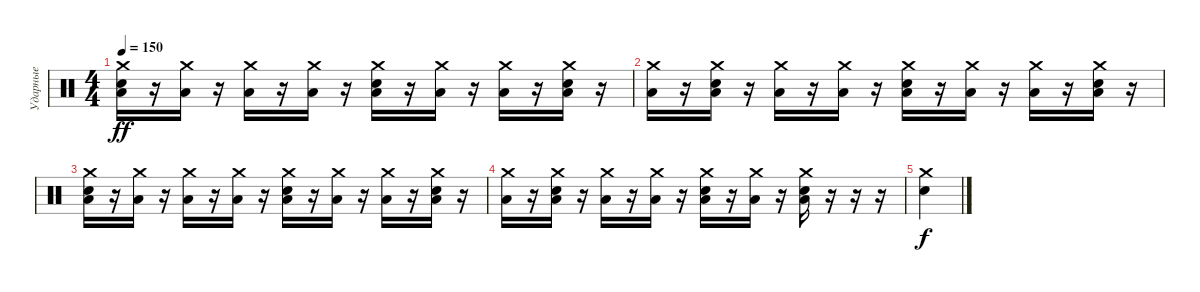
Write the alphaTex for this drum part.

\track ("Ударные" "Ударные") {instrument percussion}
\staff {score}
\articulation defaults
\ts (4 4)
\tempo 150
\clef neutral
\ks c
("Crash medium (hit)" "Snare (hit) 2" "Low Floor Tom (hit)").16{dy ff} r.16 ("Crash medium (hit)" "Low Floor Tom (hit)").16 r.16 ("Crash medium (hit)" "Low Floor Tom (hit)").16 r.16 ("Crash medium (hit)" "Low Floor Tom (hit)").16 r.16 ("Crash medium (hit)" "Snare (hit) 2" "Low Floor Tom (hit)").16 r.16 ("Crash medium (hit)" "Low Floor Tom (hit)").16 r.16 ("Crash medium (hit)" "Low Floor Tom (hit)").16 r.16 ("Crash medium (hit)" "Snare (hit) 2" "Low Floor Tom (hit)").16 r.16 |
("Crash medium (hit)" "Low Floor Tom (hit)").16 r.16 ("Crash medium (hit)" "Snare (hit) 2" "Low Floor Tom (hit)").16 r.16 ("Crash medium (hit)" "Low Floor Tom (hit)").16 r.16 ("Crash medium (hit)" "Low Floor Tom (hit)").16 r.16 ("Crash medium (hit)" "Snare (hit) 2" "Low Floor Tom (hit)").16 r.16 ("Crash medium (hit)" "Low Floor Tom (hit)").16 r.16 ("Crash medium (hit)" "Low Floor Tom (hit)").16 r.16 ("Crash medium (hit)" "Snare (hit) 2" "Low Floor Tom (hit)").16 r.16 |
("Crash medium (hit)" "Snare (hit) 2" "Low Floor Tom (hit)").16 r.16 ("Crash medium (hit)" "Low Floor Tom (hit)").16 r.16 ("Crash medium (hit)" "Low Floor Tom (hit)").16 r.16 ("Crash medium (hit)" "Low Floor Tom (hit)").16 r.16 ("Crash medium (hit)" "Snare (hit) 2" "Low Floor Tom (hit)").16 r.16 ("Crash medium (hit)" "Low Floor Tom (hit)").16 r.16 ("Crash medium (hit)" "Low Floor Tom (hit)").16 r.16 ("Crash medium (hit)" "Snare (hit) 2" "Low Floor Tom (hit)").16 r.16 |
("Crash medium (hit)" "Low Floor Tom (hit)").16 r.16 ("Crash medium (hit)" "Snare (hit) 2" "Low Floor Tom (hit)").16 r.16 ("Crash medium (hit)" "Low Floor Tom (hit)").16 r.16 ("Crash medium (hit)" "Low Floor Tom (hit)").16 r.16 ("Crash medium (hit)" "Snare (hit) 2" "Low Floor Tom (hit)").16 r.16 ("Crash medium (hit)" "Low Floor Tom (hit)").16 r.16 ("Crash medium (hit)" "Snare (hit) 2" "Low Floor Tom (hit)").16 r.16 r.16 r.16 |
("Crash medium (hit)" "Snare (hit) 2").4{dy f}
